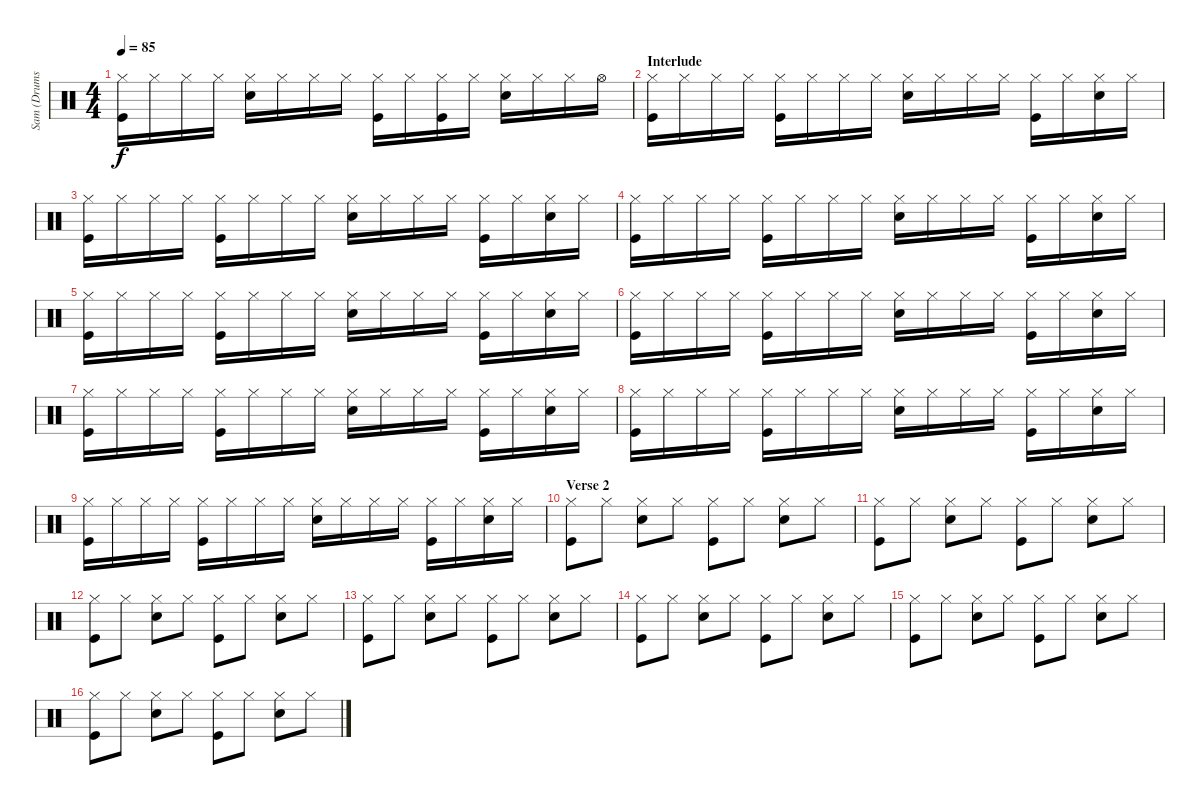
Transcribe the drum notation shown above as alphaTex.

\track ("Sam (Drums)" "Sam (Drums") {instrument percussion}
\staff {score}
\articulation defaults
\ts (4 4)
\tempo 85
\clef neutral
\ks c
("Hi-Hat (closed)" "Kick (hit)").16{dy f} "Hi-Hat (closed)".16 "Hi-Hat (closed)".16 "Hi-Hat (closed)".16 ("Hi-Hat (closed)" "Snare (hit) 2").16 "Hi-Hat (closed)".16 "Hi-Hat (closed)".16 "Hi-Hat (closed)".16 ("Hi-Hat (closed)" "Kick (hit)").16 "Hi-Hat (closed)".16 ("Hi-Hat (closed)" "Kick (hit)").16 "Hi-Hat (closed)".16 ("Hi-Hat (closed)" "Snare (hit) 2").16 "Hi-Hat (closed)".16 "Hi-Hat (closed)".16 "Hi-Hat (open)".16 |
\section ("" "Interlude")
("Hi-Hat (closed)" "Kick (hit)").16 "Hi-Hat (closed)".16 "Hi-Hat (closed)".16 "Hi-Hat (closed)".16 ("Hi-Hat (closed)" "Kick (hit)").16 "Hi-Hat (closed)".16 "Hi-Hat (closed)".16 "Hi-Hat (closed)".16 ("Hi-Hat (closed)" "Snare (hit) 2").16 "Hi-Hat (closed)".16 "Hi-Hat (closed)".16 "Hi-Hat (closed)".16 ("Hi-Hat (closed)" "Kick (hit)").16 "Hi-Hat (closed)".16 ("Hi-Hat (closed)" "Snare (hit) 2").16 "Hi-Hat (closed)".16 |
("Hi-Hat (closed)" "Kick (hit)").16 "Hi-Hat (closed)".16 "Hi-Hat (closed)".16 "Hi-Hat (closed)".16 ("Hi-Hat (closed)" "Kick (hit)").16 "Hi-Hat (closed)".16 "Hi-Hat (closed)".16 "Hi-Hat (closed)".16 ("Hi-Hat (closed)" "Snare (hit) 2").16 "Hi-Hat (closed)".16 "Hi-Hat (closed)".16 "Hi-Hat (closed)".16 ("Hi-Hat (closed)" "Kick (hit)").16 "Hi-Hat (closed)".16 ("Hi-Hat (closed)" "Snare (hit) 2").16 "Hi-Hat (closed)".16 |
("Hi-Hat (closed)" "Kick (hit)").16 "Hi-Hat (closed)".16 "Hi-Hat (closed)".16 "Hi-Hat (closed)".16 ("Hi-Hat (closed)" "Kick (hit)").16 "Hi-Hat (closed)".16 "Hi-Hat (closed)".16 "Hi-Hat (closed)".16 ("Hi-Hat (closed)" "Snare (hit) 2").16 "Hi-Hat (closed)".16 "Hi-Hat (closed)".16 "Hi-Hat (closed)".16 ("Hi-Hat (closed)" "Kick (hit)").16 "Hi-Hat (closed)".16 ("Hi-Hat (closed)" "Snare (hit) 2").16 "Hi-Hat (closed)".16 |
("Hi-Hat (closed)" "Kick (hit)").16 "Hi-Hat (closed)".16 "Hi-Hat (closed)".16 "Hi-Hat (closed)".16 ("Hi-Hat (closed)" "Kick (hit)").16 "Hi-Hat (closed)".16 "Hi-Hat (closed)".16 "Hi-Hat (closed)".16 ("Hi-Hat (closed)" "Snare (hit) 2").16 "Hi-Hat (closed)".16 "Hi-Hat (closed)".16 "Hi-Hat (closed)".16 ("Hi-Hat (closed)" "Kick (hit)").16 "Hi-Hat (closed)".16 ("Hi-Hat (closed)" "Snare (hit) 2").16 "Hi-Hat (closed)".16 |
("Hi-Hat (closed)" "Kick (hit)").16 "Hi-Hat (closed)".16 "Hi-Hat (closed)".16 "Hi-Hat (closed)".16 ("Hi-Hat (closed)" "Kick (hit)").16 "Hi-Hat (closed)".16 "Hi-Hat (closed)".16 "Hi-Hat (closed)".16 ("Hi-Hat (closed)" "Snare (hit) 2").16 "Hi-Hat (closed)".16 "Hi-Hat (closed)".16 "Hi-Hat (closed)".16 ("Hi-Hat (closed)" "Kick (hit)").16 "Hi-Hat (closed)".16 ("Hi-Hat (closed)" "Snare (hit) 2").16 "Hi-Hat (closed)".16 |
("Hi-Hat (closed)" "Kick (hit)").16 "Hi-Hat (closed)".16 "Hi-Hat (closed)".16 "Hi-Hat (closed)".16 ("Hi-Hat (closed)" "Kick (hit)").16 "Hi-Hat (closed)".16 "Hi-Hat (closed)".16 "Hi-Hat (closed)".16 ("Hi-Hat (closed)" "Snare (hit) 2").16 "Hi-Hat (closed)".16 "Hi-Hat (closed)".16 "Hi-Hat (closed)".16 ("Hi-Hat (closed)" "Kick (hit)").16 "Hi-Hat (closed)".16 ("Hi-Hat (closed)" "Snare (hit) 2").16 "Hi-Hat (closed)".16 |
("Hi-Hat (closed)" "Kick (hit)").16 "Hi-Hat (closed)".16 "Hi-Hat (closed)".16 "Hi-Hat (closed)".16 ("Hi-Hat (closed)" "Kick (hit)").16 "Hi-Hat (closed)".16 "Hi-Hat (closed)".16 "Hi-Hat (closed)".16 ("Hi-Hat (closed)" "Snare (hit) 2").16 "Hi-Hat (closed)".16 "Hi-Hat (closed)".16 "Hi-Hat (closed)".16 ("Hi-Hat (closed)" "Kick (hit)").16 "Hi-Hat (closed)".16 ("Hi-Hat (closed)" "Snare (hit) 2").16 "Hi-Hat (closed)".16 |
("Hi-Hat (closed)" "Kick (hit)").16 "Hi-Hat (closed)".16 "Hi-Hat (closed)".16 "Hi-Hat (closed)".16 ("Hi-Hat (closed)" "Kick (hit)").16 "Hi-Hat (closed)".16 "Hi-Hat (closed)".16 "Hi-Hat (closed)".16 ("Hi-Hat (closed)" "Snare (hit) 2").16 "Hi-Hat (closed)".16 "Hi-Hat (closed)".16 "Hi-Hat (closed)".16 ("Hi-Hat (closed)" "Kick (hit)").16 "Hi-Hat (closed)".16 ("Hi-Hat (closed)" "Snare (hit) 2").16 "Hi-Hat (closed)".16 |
\section ("" "Verse 2")
("Hi-Hat (closed)" "Kick (hit)").8 "Hi-Hat (closed)".8 ("Hi-Hat (closed)" "Snare (hit) 2").8 "Hi-Hat (closed)".8 ("Hi-Hat (closed)" "Kick (hit)").8 "Hi-Hat (closed)".8 ("Hi-Hat (closed)" "Snare (hit) 2").8 "Hi-Hat (closed)".8 |
("Hi-Hat (closed)" "Kick (hit)").8 "Hi-Hat (closed)".8 ("Hi-Hat (closed)" "Snare (hit) 2").8 "Hi-Hat (closed)".8 ("Hi-Hat (closed)" "Kick (hit)").8 "Hi-Hat (closed)".8 ("Hi-Hat (closed)" "Snare (hit) 2").8 "Hi-Hat (closed)".8 |
("Hi-Hat (closed)" "Kick (hit)").8 "Hi-Hat (closed)".8 ("Hi-Hat (closed)" "Snare (hit) 2").8 "Hi-Hat (closed)".8 ("Hi-Hat (closed)" "Kick (hit)").8 "Hi-Hat (closed)".8 ("Hi-Hat (closed)" "Snare (hit) 2").8 "Hi-Hat (closed)".8 |
("Hi-Hat (closed)" "Kick (hit)").8 "Hi-Hat (closed)".8 ("Hi-Hat (closed)" "Snare (hit) 2").8 "Hi-Hat (closed)".8 ("Hi-Hat (closed)" "Kick (hit)").8 "Hi-Hat (closed)".8 ("Hi-Hat (closed)" "Snare (hit) 2").8 "Hi-Hat (closed)".8 |
("Hi-Hat (closed)" "Kick (hit)").8 "Hi-Hat (closed)".8 ("Hi-Hat (closed)" "Snare (hit) 2").8 "Hi-Hat (closed)".8 ("Hi-Hat (closed)" "Kick (hit)").8 "Hi-Hat (closed)".8 ("Hi-Hat (closed)" "Snare (hit) 2").8 "Hi-Hat (closed)".8 |
("Hi-Hat (closed)" "Kick (hit)").8 "Hi-Hat (closed)".8 ("Hi-Hat (closed)" "Snare (hit) 2").8 "Hi-Hat (closed)".8 ("Hi-Hat (closed)" "Kick (hit)").8 "Hi-Hat (closed)".8 ("Hi-Hat (closed)" "Snare (hit) 2").8 "Hi-Hat (closed)".8 |
("Hi-Hat (closed)" "Kick (hit)").8 "Hi-Hat (closed)".8 ("Hi-Hat (closed)" "Snare (hit) 2").8 "Hi-Hat (closed)".8 ("Hi-Hat (closed)" "Kick (hit)").8 "Hi-Hat (closed)".8 ("Hi-Hat (closed)" "Snare (hit) 2").8 "Hi-Hat (closed)".8
